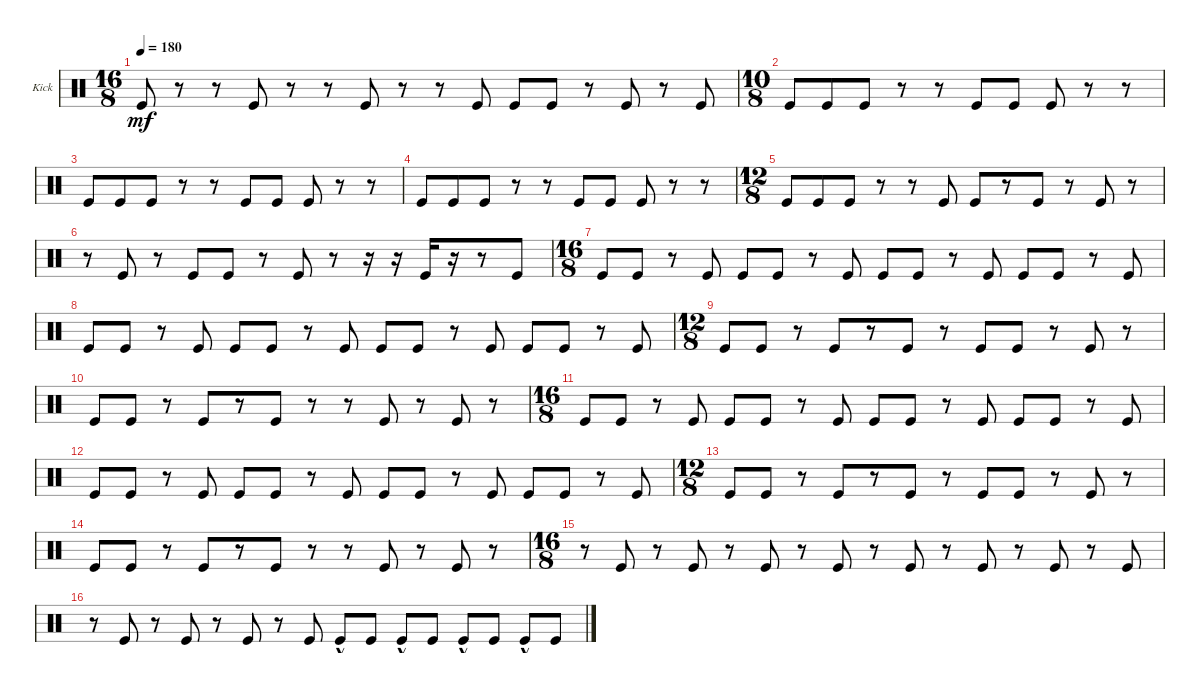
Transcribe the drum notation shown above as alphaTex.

\defaultSystemsLayout 4
\bracketExtendMode groupsimilarinstruments
\firstSystemTrackNameOrientation horizontal
\otherSystemsTrackNameOrientation horizontal
\track ("Kick" "Kick") {instrument percussion}
\staff {score}
\articulation defaults
\ts (16 8)
\tempo 180
\clef neutral
\ks c "Kick (hit)".8{dy mf}
r.8 r.8 "Kick (hit)".8 r.8 r.8 "Kick (hit)".8 r.8 r.8 "Kick (hit)".8 "Kick (hit)".8 "Kick (hit)".8 r.8 "Kick (hit)".8 r.8 "Kick (hit)".8 |
\ts (10 8)
"Kick (hit)".8 "Kick (hit)".8 "Kick (hit)".8 r.8 r.8 "Kick (hit)".8 "Kick (hit)".8 "Kick (hit)".8 r.8 r.8 |
"Kick (hit)".8 "Kick (hit)".8 "Kick (hit)".8 r.8 r.8 "Kick (hit)".8 "Kick (hit)".8 "Kick (hit)".8 r.8 r.8 |
"Kick (hit)".8 "Kick (hit)".8 "Kick (hit)".8 r.8 r.8 "Kick (hit)".8 "Kick (hit)".8 "Kick (hit)".8 r.8 r.8 |
\ts (12 8)
"Kick (hit)".8 "Kick (hit)".8 "Kick (hit)".8 r.8 r.8 "Kick (hit)".8 "Kick (hit)".8 r.8 "Kick (hit)".8 r.8 "Kick (hit)".8 r.8 |
r.8 "Kick (hit)".8 r.8 "Kick (hit)".8 "Kick (hit)".8 r.8 "Kick (hit)".8 r.8 r.16 r.16 "Kick (hit)".16 r.16 r.8 "Kick (hit)".8 |
\ts (16 8)
"Kick (hit)".8 "Kick (hit)".8 r.8 "Kick (hit)".8 "Kick (hit)".8 "Kick (hit)".8 r.8 "Kick (hit)".8 "Kick (hit)".8 "Kick (hit)".8 r.8 "Kick (hit)".8 "Kick (hit)".8 "Kick (hit)".8 r.8 "Kick (hit)".8 |
"Kick (hit)".8 "Kick (hit)".8 r.8 "Kick (hit)".8 "Kick (hit)".8 "Kick (hit)".8 r.8 "Kick (hit)".8 "Kick (hit)".8 "Kick (hit)".8 r.8 "Kick (hit)".8 "Kick (hit)".8 "Kick (hit)".8 r.8 "Kick (hit)".8 |
\ts (12 8)
"Kick (hit)".8 "Kick (hit)".8 r.8 "Kick (hit)".8 r.8 "Kick (hit)".8 r.8 "Kick (hit)".8 "Kick (hit)".8 r.8 "Kick (hit)".8 r.8 |
"Kick (hit)".8 "Kick (hit)".8 r.8 "Kick (hit)".8 r.8 "Kick (hit)".8 r.8 r.8 "Kick (hit)".8 r.8 "Kick (hit)".8 r.8 |
\ts (16 8)
"Kick (hit)".8 "Kick (hit)".8 r.8 "Kick (hit)".8 "Kick (hit)".8 "Kick (hit)".8 r.8 "Kick (hit)".8 "Kick (hit)".8 "Kick (hit)".8 r.8 "Kick (hit)".8 "Kick (hit)".8 "Kick (hit)".8 r.8 "Kick (hit)".8 |
"Kick (hit)".8 "Kick (hit)".8 r.8 "Kick (hit)".8 "Kick (hit)".8 "Kick (hit)".8 r.8 "Kick (hit)".8 "Kick (hit)".8 "Kick (hit)".8 r.8 "Kick (hit)".8 "Kick (hit)".8 "Kick (hit)".8 r.8 "Kick (hit)".8 |
\ts (12 8)
"Kick (hit)".8 "Kick (hit)".8 r.8 "Kick (hit)".8 r.8 "Kick (hit)".8 r.8 "Kick (hit)".8 "Kick (hit)".8 r.8 "Kick (hit)".8 r.8 |
"Kick (hit)".8 "Kick (hit)".8 r.8 "Kick (hit)".8 r.8 "Kick (hit)".8 r.8 r.8 "Kick (hit)".8 r.8 "Kick (hit)".8 r.8 |
\ts (16 8)
r.8 "Kick (hit)".8 r.8 "Kick (hit)".8 r.8 "Kick (hit)".8 r.8 "Kick (hit)".8 r.8 "Kick (hit)".8 r.8 "Kick (hit)".8 r.8 "Kick (hit)".8 r.8 "Kick (hit)".8 |
r.8 "Kick (hit)".8 r.8 "Kick (hit)".8 r.8 "Kick (hit)".8 r.8 "Kick (hit)".8 "Kick (hit)"{hac}.8 "Kick (hit)".8 "Kick (hit)"{hac}.8 "Kick (hit)".8 "Kick (hit)"{hac}.8 "Kick (hit)".8 "Kick (hit)"{hac}.8 "Kick (hit)".8
